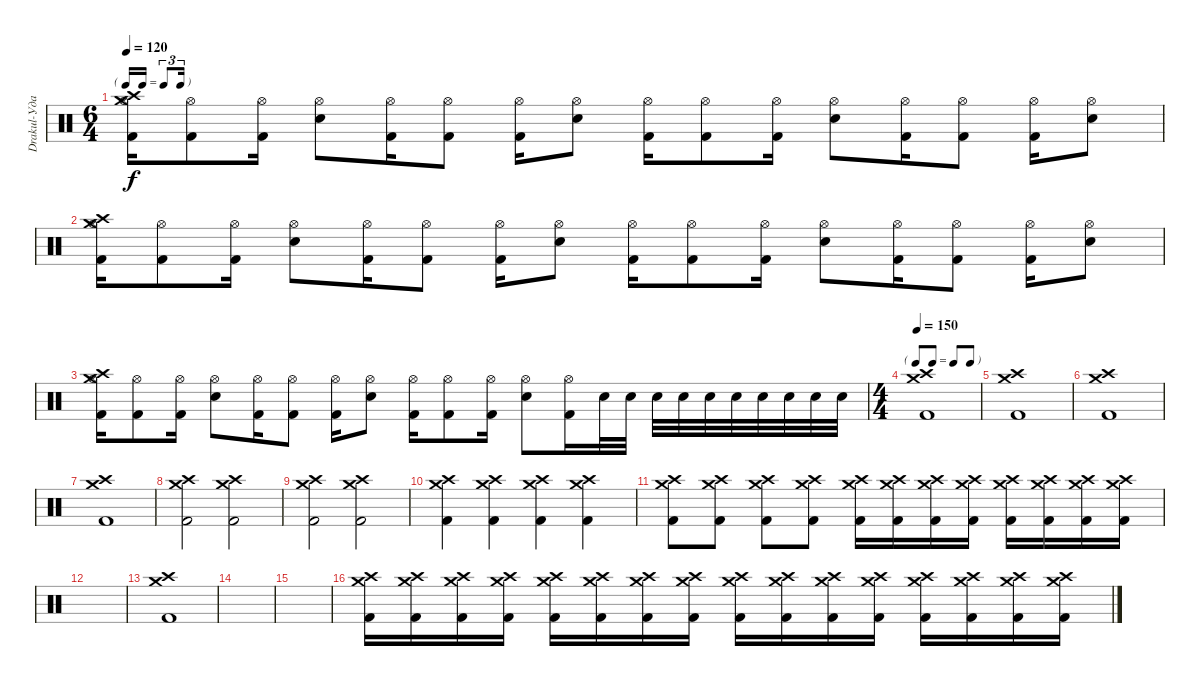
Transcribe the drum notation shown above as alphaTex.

\track ("Drakul-Ударные " "Drakul-Уда") {instrument percussion}
\staff {score}
\articulation defaults
\ts (6 4)
\tf triplet16th
\tempo 120
\clef neutral
\ks c
("Kick (hit) 2" "Hi-Hat (open)" "Crash high (hit)" "Crash medium (hit)").16{dy f} ("Kick (hit) 2" "Hi-Hat (open)").8 ("Kick (hit) 2" "Hi-Hat (open)").16 ("Electric Snare (hit)" "Hi-Hat (open)").8 ("Kick (hit) 2" "Hi-Hat (open)").16 ("Kick (hit) 2" "Hi-Hat (open)").8 ("Kick (hit) 2" "Hi-Hat (open)").16 ("Electric Snare (hit)" "Hi-Hat (open)").8 ("Kick (hit) 2" "Hi-Hat (open)").16 ("Kick (hit) 2" "Hi-Hat (open)").8 ("Kick (hit) 2" "Hi-Hat (open)").16 ("Electric Snare (hit)" "Hi-Hat (open)").8 ("Kick (hit) 2" "Hi-Hat (open)").16 ("Kick (hit) 2" "Hi-Hat (open)").8 ("Kick (hit) 2" "Hi-Hat (open)").16 ("Electric Snare (hit)" "Hi-Hat (open)").8 |
("Kick (hit) 2" "Hi-Hat (open)" "Crash high (hit)" "Crash medium (hit)").16 ("Kick (hit) 2" "Hi-Hat (open)").8 ("Kick (hit) 2" "Hi-Hat (open)").16 ("Electric Snare (hit)" "Hi-Hat (open)").8 ("Kick (hit) 2" "Hi-Hat (open)").16 ("Kick (hit) 2" "Hi-Hat (open)").8 ("Kick (hit) 2" "Hi-Hat (open)").16 ("Electric Snare (hit)" "Hi-Hat (open)").8 ("Kick (hit) 2" "Hi-Hat (open)").16 ("Kick (hit) 2" "Hi-Hat (open)").8 ("Kick (hit) 2" "Hi-Hat (open)").16 ("Electric Snare (hit)" "Hi-Hat (open)").8 ("Kick (hit) 2" "Hi-Hat (open)").16 ("Kick (hit) 2" "Hi-Hat (open)").8 ("Kick (hit) 2" "Hi-Hat (open)").16 ("Electric Snare (hit)" "Hi-Hat (open)").8 |
("Kick (hit) 2" "Hi-Hat (open)" "Crash high (hit)" "Crash medium (hit)").16 ("Kick (hit) 2" "Hi-Hat (open)").8 ("Kick (hit) 2" "Hi-Hat (open)").16 ("Electric Snare (hit)" "Hi-Hat (open)").8 ("Kick (hit) 2" "Hi-Hat (open)").16 ("Kick (hit) 2" "Hi-Hat (open)").8 ("Kick (hit) 2" "Hi-Hat (open)").16 ("Electric Snare (hit)" "Hi-Hat (open)").8 ("Kick (hit) 2" "Hi-Hat (open)").16 ("Kick (hit) 2" "Hi-Hat (open)").8 ("Kick (hit) 2" "Hi-Hat (open)").16 ("Electric Snare (hit)" "Hi-Hat (open)").8 ("Kick (hit) 2" "Hi-Hat (open)").16 "Electric Snare (hit)".32 "Electric Snare (hit)".32 "Electric Snare (hit)".32 "Electric Snare (hit)".32 "Electric Snare (hit)".32 "Electric Snare (hit)".32 "Electric Snare (hit)".32 "Electric Snare (hit)".32 "Electric Snare (hit)".32 "Electric Snare (hit)".32 |
\ts (4 4)
\tf none
\tempo 150
("Kick (hit) 2" "Crash high (hit)" "Crash medium (hit)").1 |
("Kick (hit) 2" "Crash high (hit)" "Crash medium (hit)").1 |
("Kick (hit) 2" "Crash high (hit)" "Crash medium (hit)").1 |
("Kick (hit) 2" "Crash high (hit)" "Crash medium (hit)").1 |
("Kick (hit) 2" "Crash high (hit)" "Crash medium (hit)").2 ("Kick (hit) 2" "Crash high (hit)" "Crash medium (hit)").2 |
("Kick (hit) 2" "Crash high (hit)" "Crash medium (hit)").2 ("Kick (hit) 2" "Crash high (hit)" "Crash medium (hit)").2 |
("Kick (hit) 2" "Crash high (hit)" "Crash medium (hit)").4 ("Kick (hit) 2" "Crash high (hit)" "Crash medium (hit)").4 ("Kick (hit) 2" "Crash high (hit)" "Crash medium (hit)").4 ("Kick (hit) 2" "Crash high (hit)" "Crash medium (hit)").4 |
("Kick (hit) 2" "Crash high (hit)" "Crash medium (hit)").8 ("Kick (hit) 2" "Crash high (hit)" "Crash medium (hit)").8 ("Kick (hit) 2" "Crash high (hit)" "Crash medium (hit)").8 ("Kick (hit) 2" "Crash high (hit)" "Crash medium (hit)").8 ("Kick (hit) 2" "Crash high (hit)" "Crash medium (hit)").16 ("Kick (hit) 2" "Crash high (hit)" "Crash medium (hit)").16 ("Kick (hit) 2" "Crash high (hit)" "Crash medium (hit)").16 ("Kick (hit) 2" "Crash high (hit)" "Crash medium (hit)").16 ("Kick (hit) 2" "Crash high (hit)" "Crash medium (hit)").16 ("Kick (hit) 2" "Crash high (hit)" "Crash medium (hit)").16 ("Kick (hit) 2" "Crash high (hit)" "Crash medium (hit)").16 ("Kick (hit) 2" "Crash high (hit)" "Crash medium (hit)").16 |
|
("Kick (hit) 2" "Crash high (hit)" "Crash medium (hit)").1 |
|
|
("Kick (hit) 2" "Crash medium (hit)" "Crash high (hit)").16 ("Kick (hit) 2" "Crash medium (hit)" "Crash high (hit)").16 ("Kick (hit) 2" "Crash medium (hit)" "Crash high (hit)").16 ("Kick (hit) 2" "Crash medium (hit)" "Crash high (hit)").16 ("Kick (hit) 2" "Crash medium (hit)" "Crash high (hit)").16 ("Kick (hit) 2" "Crash medium (hit)" "Crash high (hit)").16 ("Kick (hit) 2" "Crash medium (hit)" "Crash high (hit)").16 ("Kick (hit) 2" "Crash medium (hit)" "Crash high (hit)").16 ("Kick (hit) 2" "Crash medium (hit)" "Crash high (hit)").16 ("Kick (hit) 2" "Crash medium (hit)" "Crash high (hit)").16 ("Kick (hit) 2" "Crash medium (hit)" "Crash high (hit)").16 ("Kick (hit) 2" "Crash medium (hit)" "Crash high (hit)").16 ("Kick (hit) 2" "Crash medium (hit)" "Crash high (hit)").16 ("Kick (hit) 2" "Crash medium (hit)" "Crash high (hit)").16 ("Kick (hit) 2" "Crash medium (hit)" "Crash high (hit)").16 ("Kick (hit) 2" "Crash medium (hit)" "Crash high (hit)").16
